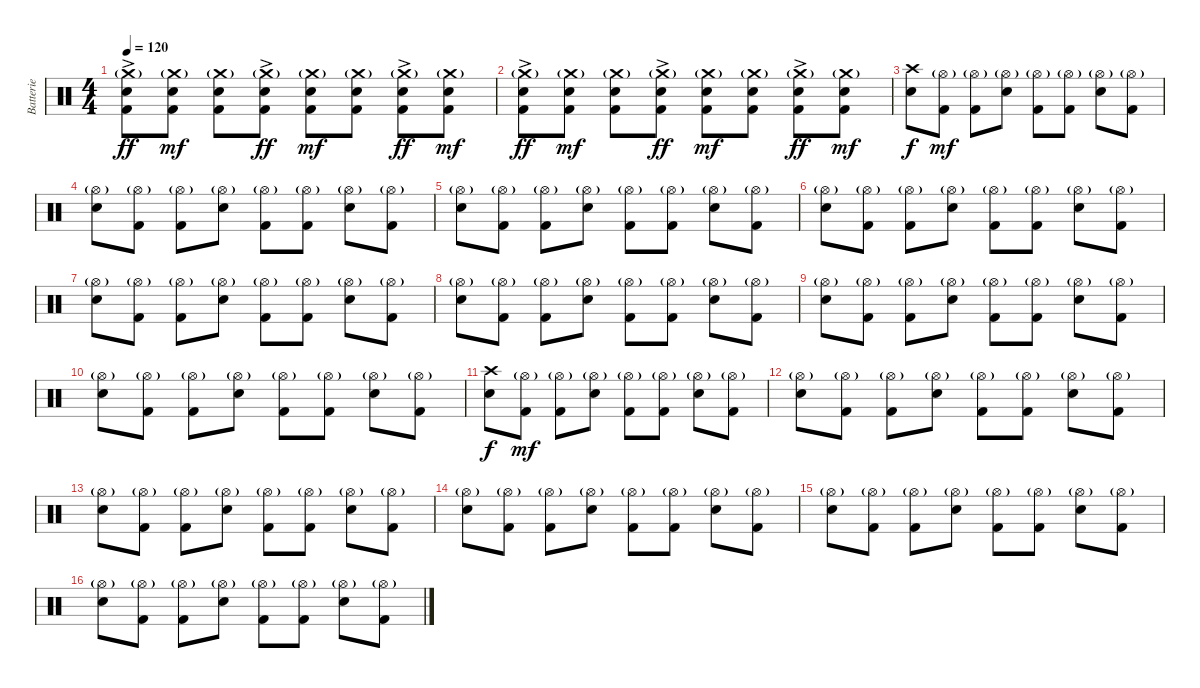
\track ("Batterie" "Batterie") {instrument percussion}
\staff {score}
\articulation defaults
\ts (4 4)
\tempo 120
\clef neutral
\ks c
("Crash medium (hit)"{g} "Electric Snare (hit)"{ac} "Kick (hit) 2").8{dy ff} ("Crash medium (hit)"{g} "Electric Snare (hit)" "Kick (hit) 2").8{dy mf} ("Crash medium (hit)"{g} "Electric Snare (hit)" "Kick (hit) 2").8 ("Crash medium (hit)"{g} "Electric Snare (hit)"{ac} "Kick (hit) 2").8{dy ff} ("Crash medium (hit)"{g} "Electric Snare (hit)" "Kick (hit) 2").8{dy mf} ("Crash medium (hit)"{g} "Electric Snare (hit)" "Kick (hit) 2").8 ("Crash medium (hit)"{g} "Electric Snare (hit)"{ac} "Kick (hit) 2").8{dy ff} ("Crash medium (hit)"{g} "Electric Snare (hit)" "Kick (hit) 2").8{dy mf} |
("Crash medium (hit)"{g} "Electric Snare (hit)"{ac} "Kick (hit) 2").8{dy ff} ("Crash medium (hit)"{g} "Electric Snare (hit)" "Kick (hit) 2").8{dy mf} ("Crash medium (hit)"{g} "Electric Snare (hit)" "Kick (hit) 2").8 ("Crash medium (hit)"{g} "Electric Snare (hit)"{ac} "Kick (hit) 2").8{dy ff} ("Crash medium (hit)"{g} "Electric Snare (hit)" "Kick (hit) 2").8{dy mf} ("Crash medium (hit)"{g} "Electric Snare (hit)" "Kick (hit) 2").8 ("Crash medium (hit)"{g} "Electric Snare (hit)"{ac} "Kick (hit) 2").8{dy ff} ("Crash medium (hit)"{g} "Electric Snare (hit)" "Kick (hit) 2").8{dy mf} |
("Crash high (hit)" "Snare (hit) 2").8{dy f} ("Hi-Hat (open)"{g} "Kick (hit) 2").8{dy mf} ("Hi-Hat (open)"{g} "Kick (hit) 2").8 ("Hi-Hat (open)"{g} "Snare (hit) 2").8 ("Hi-Hat (open)"{g} "Kick (hit) 2").8 ("Hi-Hat (open)"{g} "Kick (hit) 2").8 ("Hi-Hat (open)"{g} "Snare (hit) 2").8 ("Hi-Hat (open)"{g} "Kick (hit) 2").8 |
("Hi-Hat (open)"{g} "Snare (hit) 2").8 ("Hi-Hat (open)"{g} "Kick (hit) 2").8 ("Hi-Hat (open)"{g} "Kick (hit) 2").8 ("Hi-Hat (open)"{g} "Snare (hit) 2").8 ("Hi-Hat (open)"{g} "Kick (hit) 2").8 ("Hi-Hat (open)"{g} "Kick (hit) 2").8 ("Hi-Hat (open)"{g} "Snare (hit) 2").8 ("Hi-Hat (open)"{g} "Kick (hit) 2").8 |
("Hi-Hat (open)"{g} "Snare (hit) 2").8 ("Hi-Hat (open)"{g} "Kick (hit) 2").8 ("Hi-Hat (open)"{g} "Kick (hit) 2").8 ("Hi-Hat (open)"{g} "Snare (hit) 2").8 ("Hi-Hat (open)"{g} "Kick (hit) 2").8 ("Hi-Hat (open)"{g} "Kick (hit) 2").8 ("Hi-Hat (open)"{g} "Snare (hit) 2").8 ("Hi-Hat (open)"{g} "Kick (hit) 2").8 |
("Hi-Hat (open)"{g} "Snare (hit) 2").8 ("Hi-Hat (open)"{g} "Kick (hit) 2").8 ("Hi-Hat (open)"{g} "Kick (hit) 2").8 ("Hi-Hat (open)"{g} "Snare (hit) 2").8 ("Hi-Hat (open)"{g} "Kick (hit) 2").8 ("Hi-Hat (open)"{g} "Kick (hit) 2").8 ("Hi-Hat (open)"{g} "Snare (hit) 2").8 ("Hi-Hat (open)"{g} "Kick (hit) 2").8 |
("Hi-Hat (open)"{g} "Snare (hit) 2").8 ("Hi-Hat (open)"{g} "Kick (hit) 2").8 ("Hi-Hat (open)"{g} "Kick (hit) 2").8 ("Hi-Hat (open)"{g} "Snare (hit) 2").8 ("Hi-Hat (open)"{g} "Kick (hit) 2").8 ("Hi-Hat (open)"{g} "Kick (hit) 2").8 ("Hi-Hat (open)"{g} "Snare (hit) 2").8 ("Hi-Hat (open)"{g} "Kick (hit) 2").8 |
("Hi-Hat (open)"{g} "Snare (hit) 2").8 ("Hi-Hat (open)"{g} "Kick (hit) 2").8 ("Hi-Hat (open)"{g} "Kick (hit) 2").8 ("Hi-Hat (open)"{g} "Snare (hit) 2").8 ("Hi-Hat (open)"{g} "Kick (hit) 2").8 ("Hi-Hat (open)"{g} "Kick (hit) 2").8 ("Hi-Hat (open)"{g} "Snare (hit) 2").8 ("Hi-Hat (open)"{g} "Kick (hit) 2").8 |
("Hi-Hat (open)"{g} "Snare (hit) 2").8 ("Hi-Hat (open)"{g} "Kick (hit) 2").8 ("Hi-Hat (open)"{g} "Kick (hit) 2").8 ("Hi-Hat (open)"{g} "Snare (hit) 2").8 ("Hi-Hat (open)"{g} "Kick (hit) 2").8 ("Hi-Hat (open)"{g} "Kick (hit) 2").8 ("Hi-Hat (open)"{g} "Snare (hit) 2").8 ("Hi-Hat (open)"{g} "Kick (hit) 2").8 |
("Hi-Hat (open)"{g} "Snare (hit) 2").8 ("Hi-Hat (open)"{g} "Kick (hit) 2").8 ("Hi-Hat (open)"{g} "Kick (hit) 2").8 ("Hi-Hat (open)"{g} "Snare (hit) 2").8 ("Hi-Hat (open)"{g} "Kick (hit) 2").8 ("Hi-Hat (open)"{g} "Kick (hit) 2").8 ("Hi-Hat (open)"{g} "Snare (hit) 2").8 ("Hi-Hat (open)"{g} "Kick (hit) 2").8 |
("Crash high (hit)" "Snare (hit) 2").8{dy f} ("Hi-Hat (open)"{g} "Kick (hit) 2").8{dy mf} ("Hi-Hat (open)"{g} "Kick (hit) 2").8 ("Hi-Hat (open)"{g} "Snare (hit) 2").8 ("Hi-Hat (open)"{g} "Kick (hit) 2").8 ("Hi-Hat (open)"{g} "Kick (hit) 2").8 ("Hi-Hat (open)"{g} "Snare (hit) 2").8 ("Hi-Hat (open)"{g} "Kick (hit) 2").8 |
("Hi-Hat (open)"{g} "Snare (hit) 2").8 ("Hi-Hat (open)"{g} "Kick (hit) 2").8 ("Hi-Hat (open)"{g} "Kick (hit) 2").8 ("Hi-Hat (open)"{g} "Snare (hit) 2").8 ("Hi-Hat (open)"{g} "Kick (hit) 2").8 ("Hi-Hat (open)"{g} "Kick (hit) 2").8 ("Hi-Hat (open)"{g} "Snare (hit) 2").8 ("Hi-Hat (open)"{g} "Kick (hit) 2").8 |
("Hi-Hat (open)"{g} "Snare (hit) 2").8 ("Hi-Hat (open)"{g} "Kick (hit) 2").8 ("Hi-Hat (open)"{g} "Kick (hit) 2").8 ("Hi-Hat (open)"{g} "Snare (hit) 2").8 ("Hi-Hat (open)"{g} "Kick (hit) 2").8 ("Hi-Hat (open)"{g} "Kick (hit) 2").8 ("Hi-Hat (open)"{g} "Snare (hit) 2").8 ("Hi-Hat (open)"{g} "Kick (hit) 2").8 |
("Hi-Hat (open)"{g} "Snare (hit) 2").8 ("Hi-Hat (open)"{g} "Kick (hit) 2").8 ("Hi-Hat (open)"{g} "Kick (hit) 2").8 ("Hi-Hat (open)"{g} "Snare (hit) 2").8 ("Hi-Hat (open)"{g} "Kick (hit) 2").8 ("Hi-Hat (open)"{g} "Kick (hit) 2").8 ("Hi-Hat (open)"{g} "Snare (hit) 2").8 ("Hi-Hat (open)"{g} "Kick (hit) 2").8 |
("Hi-Hat (open)"{g} "Snare (hit) 2").8 ("Hi-Hat (open)"{g} "Kick (hit) 2").8 ("Hi-Hat (open)"{g} "Kick (hit) 2").8 ("Hi-Hat (open)"{g} "Snare (hit) 2").8 ("Hi-Hat (open)"{g} "Kick (hit) 2").8 ("Hi-Hat (open)"{g} "Kick (hit) 2").8 ("Hi-Hat (open)"{g} "Snare (hit) 2").8 ("Hi-Hat (open)"{g} "Kick (hit) 2").8 |
("Hi-Hat (open)"{g} "Snare (hit) 2").8 ("Hi-Hat (open)"{g} "Kick (hit) 2").8 ("Hi-Hat (open)"{g} "Kick (hit) 2").8 ("Hi-Hat (open)"{g} "Snare (hit) 2").8 ("Hi-Hat (open)"{g} "Kick (hit) 2").8 ("Hi-Hat (open)"{g} "Kick (hit) 2").8 ("Hi-Hat (open)"{g} "Snare (hit) 2").8 ("Hi-Hat (open)"{g} "Kick (hit) 2").8
